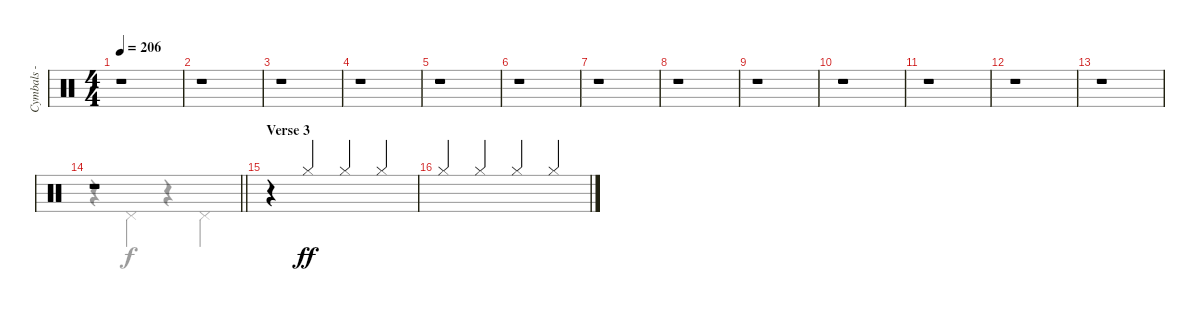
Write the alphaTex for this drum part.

\track ("Cymbals - hi-hat" "Cymbals - ") {instrument percussion}
\staff {score}
\articulation defaults
\voice
\ts (4 4)
\tempo 206
\clef neutral
\ks c
r.1{dy ff} |
r.1 |
r.1 |
r.1 |
r.1 |
r.1 |
r.1 |
r.1 |
r.1 |
r.1 |
r.1 |
r.1 |
r.1 |
\barLineRight lightlight
r.1 |
\section ("" "Verse 3")
r.4 "Hi-Hat (closed)".4{beam Up} "Hi-Hat (closed)".4{beam Up} "Hi-Hat (closed)".4{beam Up} |
"Hi-Hat (closed)".4{beam Up} "Hi-Hat (closed)".4{beam Up} "Hi-Hat (closed)".4{beam Up} "Hi-Hat (closed)".4{beam Up}
\voice
\clef neutral
\ottava regular
\simile none
\ks c
|
|
|
|
|
|
|
|
|
|
|
|
|
\barLineRight lightlight
r.4 "Pedal Hi-Hat (hit)".4{dy f} r.4 "Pedal Hi-Hat (hit)".4 |
|
